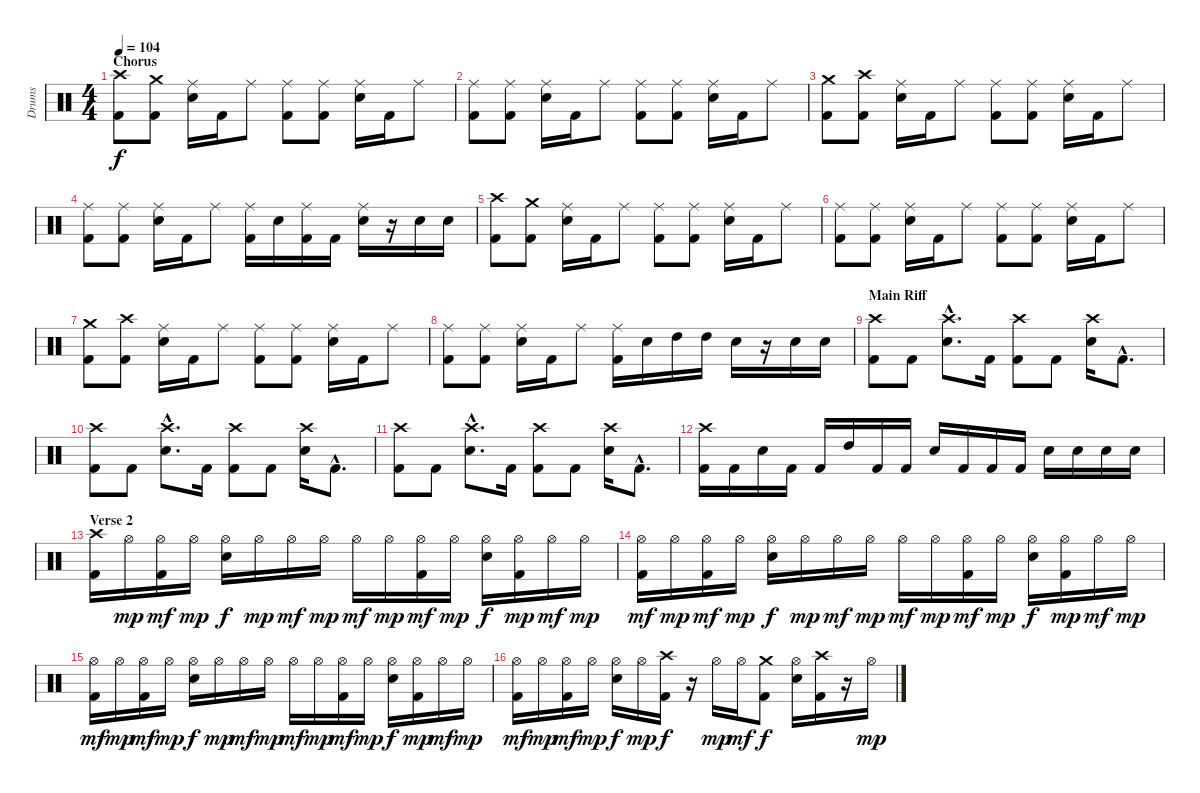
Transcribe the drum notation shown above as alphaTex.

\track ("Drums" "Drums") {instrument percussion}
\staff {score}
\articulation defaults
\ts (4 4)
\section ("" "Chorus")
\tempo 104
\clef neutral
\ks c
("Crash high (hit)" "Kick (hit) 2").8{dy f} ("Crash medium (hit)" "Kick (hit) 2").8 ("Ride (middle)" "Electric Snare (hit)").16 "Kick (hit) 2".16 "Ride (middle)".8 ("Ride (middle)" "Kick (hit) 2").8 ("Ride (middle)" "Kick (hit) 2").8 ("Ride (middle)" "Electric Snare (hit)").16 "Kick (hit) 2".16 "Ride (middle)".8 |
("Ride (middle)" "Kick (hit) 2").8 ("Ride (middle)" "Kick (hit) 2").8 ("Ride (middle)" "Electric Snare (hit)").16 "Kick (hit) 2".16 "Ride (middle)".8 ("Ride (middle)" "Kick (hit) 2").8 ("Ride (middle)" "Kick (hit) 2").8 ("Ride (middle)" "Electric Snare (hit)").16 "Kick (hit) 2".16 "Ride (middle)".8 |
("Crash medium (hit)" "Kick (hit) 2").8 ("Crash high (hit)" "Kick (hit) 2").8 ("Ride (middle)" "Electric Snare (hit)").16 "Kick (hit) 2".16 "Ride (middle)".8 ("Ride (middle)" "Kick (hit) 2").8 ("Ride (middle)" "Kick (hit) 2").8 ("Ride (middle)" "Electric Snare (hit)").16 "Kick (hit) 2".16 "Ride (middle)".8 |
("Ride (middle)" "Kick (hit) 2").8 ("Ride (middle)" "Kick (hit) 2").8 ("Ride (middle)" "Electric Snare (hit)").16 "Kick (hit) 2".16 "Ride (middle)".8 ("Ride (middle)" "Kick (hit) 2").16 "Electric Snare (hit)".16 ("Ride (middle)" "Kick (hit) 2").16 "Kick (hit) 2".16 ("Ride (middle)" "Electric Snare (hit)").16 r.16 "Electric Snare (hit)".16 "Electric Snare (hit)".16 |
("Crash high (hit)" "Kick (hit) 2").8 ("Crash medium (hit)" "Kick (hit) 2").8 ("Ride (middle)" "Electric Snare (hit)").16 "Kick (hit) 2".16 "Ride (middle)".8 ("Ride (middle)" "Kick (hit) 2").8 ("Ride (middle)" "Kick (hit) 2").8 ("Ride (middle)" "Electric Snare (hit)").16 "Kick (hit) 2".16 "Ride (middle)".8 |
("Ride (middle)" "Kick (hit) 2").8 ("Ride (middle)" "Kick (hit) 2").8 ("Ride (middle)" "Electric Snare (hit)").16 "Kick (hit) 2".16 "Ride (middle)".8 ("Ride (middle)" "Kick (hit) 2").8 ("Ride (middle)" "Kick (hit) 2").8 ("Ride (middle)" "Electric Snare (hit)").16 "Kick (hit) 2".16 "Ride (middle)".8 |
("Crash medium (hit)" "Kick (hit) 2").8 ("Crash high (hit)" "Kick (hit) 2").8 ("Ride (middle)" "Electric Snare (hit)").16 "Kick (hit) 2".16 "Ride (middle)".8 ("Ride (middle)" "Kick (hit) 2").8 ("Ride (middle)" "Kick (hit) 2").8 ("Ride (middle)" "Electric Snare (hit)").16 "Kick (hit) 2".16 "Ride (middle)".8 |
("Ride (middle)" "Kick (hit) 2").8 ("Ride (middle)" "Kick (hit) 2").8 ("Ride (middle)" "Electric Snare (hit)").16 "Kick (hit) 2".16 "Ride (middle)".8 ("Ride (middle)" "Kick (hit) 2").16 "Electric Snare (hit)".16 "High Tom (hit)".16 "High Tom (hit)".16 "Electric Snare (hit)".16 r.16 "Electric Snare (hit)".16 "Electric Snare (hit)".16 |
\section ("" "Main Riff")
("Crash high (hit)" "Kick (hit) 2").8 "Kick (hit) 2".8 ("Crash high (hit)"{hac} "Electric Snare (hit)"{hac}).8{d} "Kick (hit) 2".16 ("Crash high (hit)" "Kick (hit) 2").8 "Kick (hit) 2".8 ("Crash high (hit)" "Electric Snare (hit)").16 "Kick (hit) 2"{hac}.8{d} |
("Crash high (hit)" "Kick (hit) 2").8 "Kick (hit) 2".8 ("Crash high (hit)"{hac} "Electric Snare (hit)"{hac}).8{d} "Kick (hit) 2".16 ("Crash high (hit)" "Kick (hit) 2").8 "Kick (hit) 2".8 ("Crash high (hit)" "Electric Snare (hit)").16 "Kick (hit) 2"{hac}.8{d} |
("Crash high (hit)" "Kick (hit) 2").8 "Kick (hit) 2".8 ("Crash high (hit)"{hac} "Electric Snare (hit)"{hac}).8{d} "Kick (hit) 2".16 ("Crash high (hit)" "Kick (hit) 2").8 "Kick (hit) 2".8 ("Crash high (hit)" "Electric Snare (hit)").16 "Kick (hit) 2"{hac}.8{d} |
("Crash high (hit)" "Kick (hit) 2").16 "Kick (hit) 2".16 "Electric Snare (hit)".16 "Kick (hit) 2".16 "Kick (hit) 2".16 "High Tom (hit)".16 "Kick (hit) 2".16 "Kick (hit) 2".16 "Electric Snare (hit)".16 "Kick (hit) 2".16 "Kick (hit) 2".16 "Kick (hit) 2".16 "Electric Snare (hit)".16 "Electric Snare (hit)".16 "Electric Snare (hit)".16 "Electric Snare (hit)".16 |
\section ("" "Verse 2")
("Crash high (hit)" "Kick (hit) 2").16 "Hi-Hat (open)".16{dy mp} ("Hi-Hat (open)" "Kick (hit) 2").16{dy mf} "Hi-Hat (open)".16{dy mp} ("Hi-Hat (open)" "Electric Snare (hit)").16{dy f} "Hi-Hat (open)".16{dy mp} "Hi-Hat (open)".16{dy mf} "Hi-Hat (open)".16{dy mp} "Hi-Hat (open)".16{dy mf} "Hi-Hat (open)".16{dy mp} ("Hi-Hat (open)" "Kick (hit) 2").16{dy mf} "Hi-Hat (open)".16{dy mp} ("Hi-Hat (open)" "Electric Snare (hit)").16{dy f} ("Hi-Hat (open)" "Kick (hit) 2").16{dy mp} "Hi-Hat (open)".16{dy mf} "Hi-Hat (open)".16{dy mp} |
("Hi-Hat (open)" "Kick (hit) 2").16{dy mf} "Hi-Hat (open)".16{dy mp} ("Hi-Hat (open)" "Kick (hit) 2").16{dy mf} "Hi-Hat (open)".16{dy mp} ("Hi-Hat (open)" "Electric Snare (hit)").16{dy f} "Hi-Hat (open)".16{dy mp} "Hi-Hat (open)".16{dy mf} "Hi-Hat (open)".16{dy mp} "Hi-Hat (open)".16{dy mf} "Hi-Hat (open)".16{dy mp} ("Hi-Hat (open)" "Kick (hit) 2").16{dy mf} "Hi-Hat (open)".16{dy mp} ("Hi-Hat (open)" "Electric Snare (hit)").16{dy f} ("Hi-Hat (open)" "Kick (hit) 2").16{dy mp} "Hi-Hat (open)".16{dy mf} "Hi-Hat (open)".16{dy mp} |
("Hi-Hat (open)" "Kick (hit) 2").16{dy mf} "Hi-Hat (open)".16{dy mp} ("Hi-Hat (open)" "Kick (hit) 2").16{dy mf} "Hi-Hat (open)".16{dy mp} ("Hi-Hat (open)" "Electric Snare (hit)").16{dy f} "Hi-Hat (open)".16{dy mp} "Hi-Hat (open)".16{dy mf} "Hi-Hat (open)".16{dy mp} "Hi-Hat (open)".16{dy mf} "Hi-Hat (open)".16{dy mp} ("Hi-Hat (open)" "Kick (hit) 2").16{dy mf} "Hi-Hat (open)".16{dy mp} ("Hi-Hat (open)" "Electric Snare (hit)").16{dy f} ("Hi-Hat (open)" "Kick (hit) 2").16{dy mp} "Hi-Hat (open)".16{dy mf} "Hi-Hat (open)".16{dy mp} |
("Hi-Hat (open)" "Kick (hit) 2").16{dy mf} "Hi-Hat (open)".16{dy mp} ("Hi-Hat (open)" "Kick (hit) 2").16{dy mf} "Hi-Hat (open)".16{dy mp} ("Hi-Hat (open)" "Electric Snare (hit)").16{dy f} "Hi-Hat (open)".16{dy mp} ("Crash high (hit)" "Kick (hit) 2").16{dy f} r.16 "Hi-Hat (open)".16{dy mp} "Hi-Hat (open)".16{dy mf} ("Crash medium (hit)" "Kick (hit) 2").8{dy f} ("Hi-Hat (open)" "Electric Snare (hit)").16 ("Crash high (hit)" "Kick (hit) 2").16 r.16 "Hi-Hat (open)".16{dy mp}
